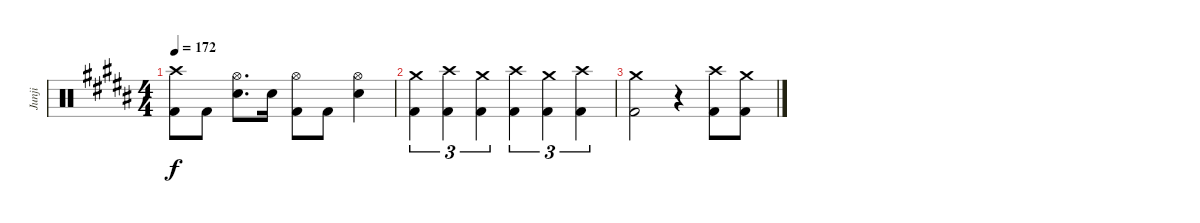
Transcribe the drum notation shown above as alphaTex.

\track ("Junji" "Junji") {instrument percussion}
\staff {score}
\articulation defaults
\ts (4 4)
\tempo 172
\clef neutral
\ks b
("Crash high (hit)" "Kick (hit) 2").8{dy f} "Kick (hit) 2".8 ("Hi-Hat (open)" "Snare (hit) 2").8{d} "Snare (hit) 2".16 ("Hi-Hat (open)" "Kick (hit) 2").8 "Kick (hit) 2".8 ("Hi-Hat (open)" "Snare (hit) 2").4 |
("Crash medium (hit)" "Kick (hit) 2").4{tu (3 2)} ("Crash high (hit)" "Kick (hit) 2").4{tu (3 2)} ("Crash medium (hit)" "Kick (hit) 2").4{tu (3 2)} ("Crash high (hit)" "Kick (hit) 2").4{tu (3 2)} ("Crash medium (hit)" "Kick (hit) 2").4{tu (3 2)} ("Crash high (hit)" "Kick (hit) 2").4{tu (3 2)} |
("Crash medium (hit)" "Kick (hit) 2").2 r.4 ("Crash high (hit)" "Kick (hit) 2").8 ("Crash medium (hit)" "Kick (hit) 2").8
